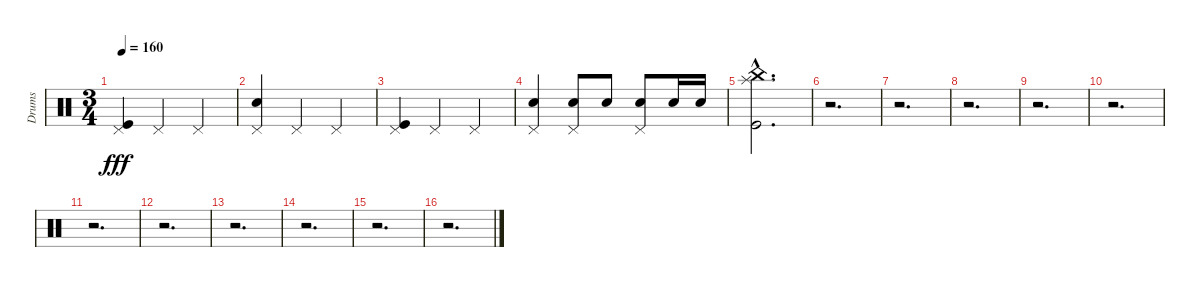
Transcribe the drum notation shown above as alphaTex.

\track ("Drums" "Drums") {instrument percussion}
\staff {score}
\articulation defaults
\ts (3 4)
\tempo 160
\clef neutral
\ks c
("Kick (hit)" "Pedal Hi-Hat (hit)").4{dy fff} "Pedal Hi-Hat (hit)".4 "Pedal Hi-Hat (hit)".4 |
("Electric Snare (hit)" "Pedal Hi-Hat (hit)").4 "Pedal Hi-Hat (hit)".4 "Pedal Hi-Hat (hit)".4 |
("Kick (hit)" "Pedal Hi-Hat (hit)").4 "Pedal Hi-Hat (hit)".4 "Pedal Hi-Hat (hit)".4 |
("Electric Snare (hit)" "Pedal Hi-Hat (hit)").4 ("Electric Snare (hit)" "Pedal Hi-Hat (hit)").8 "Electric Snare (hit)".8 ("Electric Snare (hit)" "Pedal Hi-Hat (hit)").8 "Electric Snare (hit)".16 "Electric Snare (hit)".16 |
("Kick (hit)"{hac} "Splash (hit)"{hac} "China (hit)"{hac}).2{d} |
r.2{d} |
r.2{d} |
r.2{d} |
r.2{d} |
r.2{d} |
r.2{d} |
r.2{d} |
r.2{d} |
r.2{d} |
r.2{d} |
r.2{d}
